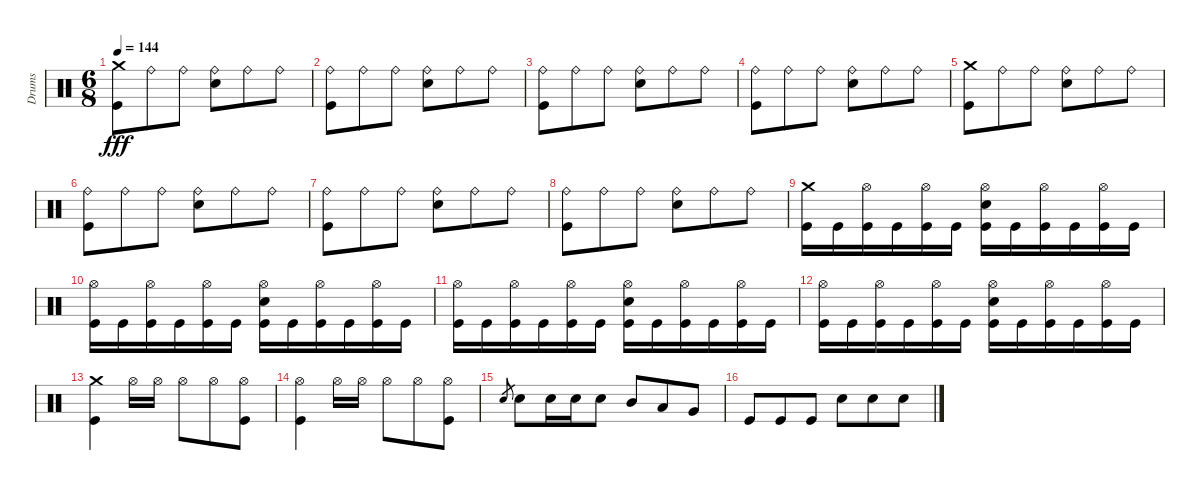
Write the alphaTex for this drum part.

\track ("Drums" "Drums") {instrument percussion}
\staff {score}
\articulation defaults
\ts (6 8)
\tempo 144
\clef neutral
\ks c
("Crash medium (hit)" "Kick (hit)").8{dy fff} "Ride (bell)".8 "Ride (bell)".8 ("Ride (bell)" "Snare (hit) 2").8 "Ride (bell)".8 "Ride (bell)".8 |
("Ride (bell)" "Kick (hit)").8 "Ride (bell)".8 "Ride (bell)".8 ("Ride (bell)" "Snare (hit) 2").8 "Ride (bell)".8 "Ride (bell)".8 |
("Ride (bell)" "Kick (hit)").8 "Ride (bell)".8 "Ride (bell)".8 ("Ride (bell)" "Snare (hit) 2").8 "Ride (bell)".8 "Ride (bell)".8 |
("Ride (bell)" "Kick (hit)").8 "Ride (bell)".8 "Ride (bell)".8 ("Ride (bell)" "Snare (hit) 2").8 "Ride (bell)".8 "Ride (bell)".8 |
("Crash medium (hit)" "Kick (hit)").8 "Ride (bell)".8 "Ride (bell)".8 ("Ride (bell)" "Snare (hit) 2").8 "Ride (bell)".8 "Ride (bell)".8 |
("Ride (bell)" "Kick (hit)").8 "Ride (bell)".8 "Ride (bell)".8 ("Ride (bell)" "Snare (hit) 2").8 "Ride (bell)".8 "Ride (bell)".8 |
("Ride (bell)" "Kick (hit)").8 "Ride (bell)".8 "Ride (bell)".8 ("Ride (bell)" "Snare (hit) 2").8 "Ride (bell)".8 "Ride (bell)".8 |
("Ride (bell)" "Kick (hit)").8 "Ride (bell)".8 "Ride (bell)".8 ("Ride (bell)" "Snare (hit) 2").8 "Ride (bell)".8 "Ride (bell)".8 |
("Crash medium (hit)" "Kick (hit)").16 "Kick (hit)".16 ("Hi-Hat (open)" "Kick (hit)").16 "Kick (hit)".16 ("Hi-Hat (open)" "Kick (hit)").16 "Kick (hit)".16 ("Hi-Hat (open)" "Snare (hit) 2" "Kick (hit)").16 "Kick (hit)".16 ("Hi-Hat (open)" "Kick (hit)").16 "Kick (hit)".16 ("Hi-Hat (open)" "Kick (hit)").16 "Kick (hit)".16 |
("Hi-Hat (open)" "Kick (hit)").16 "Kick (hit)".16 ("Hi-Hat (open)" "Kick (hit)").16 "Kick (hit)".16 ("Hi-Hat (open)" "Kick (hit)").16 "Kick (hit)".16 ("Hi-Hat (open)" "Snare (hit) 2" "Kick (hit)").16 "Kick (hit)".16 ("Hi-Hat (open)" "Kick (hit)").16 "Kick (hit)".16 ("Hi-Hat (open)" "Kick (hit)").16 "Kick (hit)".16 |
("Hi-Hat (open)" "Kick (hit)").16 "Kick (hit)".16 ("Hi-Hat (open)" "Kick (hit)").16 "Kick (hit)".16 ("Hi-Hat (open)" "Kick (hit)").16 "Kick (hit)".16 ("Hi-Hat (open)" "Snare (hit) 2" "Kick (hit)").16 "Kick (hit)".16 ("Hi-Hat (open)" "Kick (hit)").16 "Kick (hit)".16 ("Hi-Hat (open)" "Kick (hit)").16 "Kick (hit)".16 |
("Hi-Hat (open)" "Kick (hit)").16 "Kick (hit)".16 ("Hi-Hat (open)" "Kick (hit)").16 "Kick (hit)".16 ("Hi-Hat (open)" "Kick (hit)").16 "Kick (hit)".16 ("Hi-Hat (open)" "Snare (hit) 2" "Kick (hit)").16 "Kick (hit)".16 ("Hi-Hat (open)" "Kick (hit)").16 "Kick (hit)".16 ("Hi-Hat (open)" "Kick (hit)").16 "Kick (hit)".16 |
("Crash medium (hit)" "Kick (hit)").4 "Hi-Hat (open)".16 "Hi-Hat (open)".16 "Hi-Hat (open)".8 "Hi-Hat (open)".8 ("Hi-Hat (open)" "Kick (hit)").8 |
("Hi-Hat (open)" "Kick (hit)").4 "Hi-Hat (open)".16 "Hi-Hat (open)".16 "Hi-Hat (open)".8 "Hi-Hat (open)".8 ("Hi-Hat (open)" "Kick (hit)").8 |
"Snare (hit) 2".8{gr} "Snare (hit) 2".8 "Snare (hit) 2".16 "Snare (hit) 2".16 "Snare (hit) 2".8 "Mid Tom (hit)".8 "Low Tom (hit)".8 "Very Low Tom (hit)".8 |
"Kick (hit)".8 "Kick (hit)".8 "Kick (hit)".8 "Snare (hit) 2".8 "Snare (hit) 2".8 "Snare (hit) 2".8
